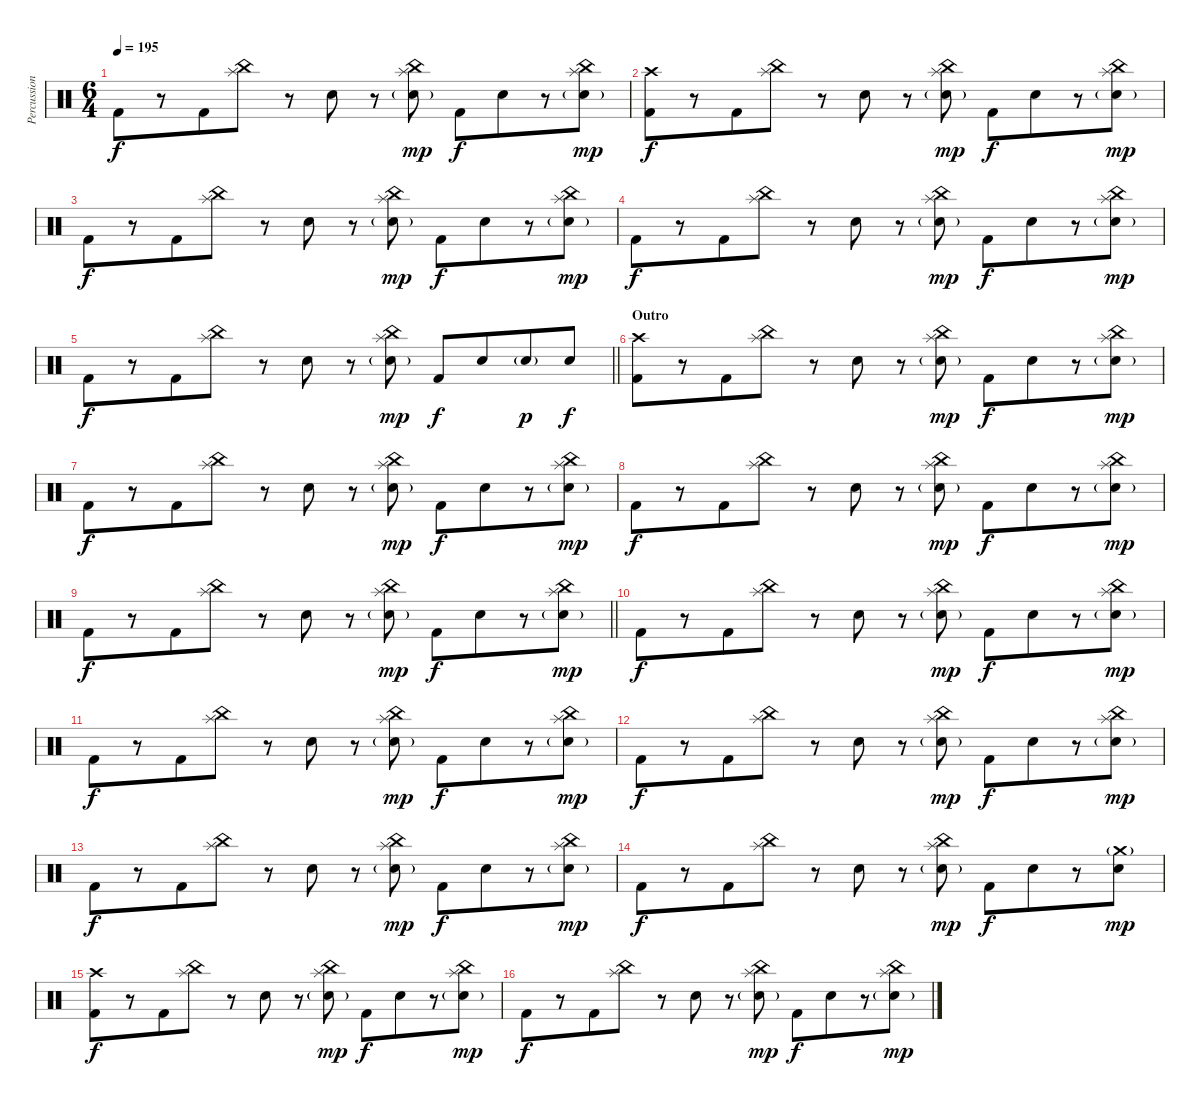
\track ("Percussion" "Percussion") {instrument percussion bank 237}
\staff {score}
\articulation defaults
\ts (6 4)
\tempo 195
\clef neutral
\ks c "Kick (hit) 2".8{dy f beam merge}
r.8{beam merge} "Kick (hit) 2".8 ("Splash (hit)" "China (hit)").8 r.8 "Electric Snare (hit)".8 r.8{beam merge} ("Splash (hit)" "China (hit)" "Electric Snare (hit)"{g}).8{dy mp} "Kick (hit) 2".8{dy f} "Electric Snare (hit)".8{beam merge} r.8{beam merge} ("Splash (hit)" "China (hit)" "Electric Snare (hit)"{g}).8{dy mp} |
("Crash high (hit)" "Kick (hit) 2").8{dy f beam merge} r.8{beam merge} "Kick (hit) 2".8 ("Splash (hit)" "China (hit)").8 r.8 "Electric Snare (hit)".8 r.8 ("Splash (hit)" "China (hit)" "Electric Snare (hit)"{g}).8{dy mp} "Kick (hit) 2".8{dy f} "Electric Snare (hit)".8{beam merge} r.8{beam merge} ("Splash (hit)" "China (hit)" "Electric Snare (hit)"{g}).8{dy mp} |
"Kick (hit) 2".8{dy f beam merge} r.8{beam merge} "Kick (hit) 2".8 ("Splash (hit)" "China (hit)").8 r.8 "Electric Snare (hit)".8 r.8{beam merge} ("Splash (hit)" "China (hit)" "Electric Snare (hit)"{g}).8{dy mp} "Kick (hit) 2".8{dy f} "Electric Snare (hit)".8{beam merge} r.8{beam merge} ("Splash (hit)" "China (hit)" "Electric Snare (hit)"{g}).8{dy mp} |
"Kick (hit) 2".8{dy f beam merge} r.8{beam merge} "Kick (hit) 2".8 ("Splash (hit)" "China (hit)").8 r.8 "Electric Snare (hit)".8 r.8{beam merge} ("Splash (hit)" "China (hit)" "Electric Snare (hit)"{g}).8{dy mp} "Kick (hit) 2".8{dy f} "Electric Snare (hit)".8{beam merge} r.8{beam merge} ("Splash (hit)" "China (hit)" "Electric Snare (hit)"{g}).8{dy mp} |
\barLineRight lightlight "Kick (hit) 2".8{dy f beam merge}
r.8{beam merge} "Kick (hit) 2".8 ("Splash (hit)" "China (hit)").8 r.8 "Electric Snare (hit)".8 r.8 ("Splash (hit)" "China (hit)" "Electric Snare (hit)"{g}).8{dy mp} "Kick (hit) 2".8{dy f} "Electric Snare (hit)".8{beam merge} "Electric Snare (hit)"{g}.8{dy p} "Electric Snare (hit)".8{dy f} |
\section ("" "Outro")
("Crash high (hit)" "Kick (hit) 2").8{beam merge} r.8{beam merge} "Kick (hit) 2".8 ("Splash (hit)" "China (hit)").8 r.8 "Electric Snare (hit)".8 r.8 ("Splash (hit)" "China (hit)" "Electric Snare (hit)"{g}).8{dy mp} "Kick (hit) 2".8{dy f} "Electric Snare (hit)".8{beam merge} r.8{beam merge} ("Splash (hit)" "China (hit)" "Electric Snare (hit)"{g}).8{dy mp} |
"Kick (hit) 2".8{dy f beam merge} r.8{beam merge} "Kick (hit) 2".8 ("Splash (hit)" "China (hit)").8 r.8 "Electric Snare (hit)".8 r.8{beam merge} ("Splash (hit)" "China (hit)" "Electric Snare (hit)"{g}).8{dy mp} "Kick (hit) 2".8{dy f} "Electric Snare (hit)".8{beam merge} r.8{beam merge} ("Splash (hit)" "China (hit)" "Electric Snare (hit)"{g}).8{dy mp} |
"Kick (hit) 2".8{dy f beam merge} r.8{beam merge} "Kick (hit) 2".8 ("Splash (hit)" "China (hit)").8 r.8 "Electric Snare (hit)".8 r.8{beam merge} ("Splash (hit)" "China (hit)" "Electric Snare (hit)"{g}).8{dy mp} "Kick (hit) 2".8{dy f} "Electric Snare (hit)".8{beam merge} r.8{beam merge} ("Splash (hit)" "China (hit)" "Electric Snare (hit)"{g}).8{dy mp} |
\barLineRight lightlight "Kick (hit) 2".8{dy f beam merge}
r.8{beam merge} "Kick (hit) 2".8 ("Splash (hit)" "China (hit)").8 r.8 "Electric Snare (hit)".8 r.8{beam merge} ("Splash (hit)" "China (hit)" "Electric Snare (hit)"{g}).8{dy mp} "Kick (hit) 2".8{dy f} "Electric Snare (hit)".8{beam merge} r.8{beam merge} ("Splash (hit)" "China (hit)" "Electric Snare (hit)"{g}).8{dy mp} |
"Kick (hit) 2".8{dy f beam merge} r.8{beam merge} "Kick (hit) 2".8 ("Splash (hit)" "China (hit)").8 r.8 "Electric Snare (hit)".8 r.8{beam merge} ("Splash (hit)" "China (hit)" "Electric Snare (hit)"{g}).8{dy mp} "Kick (hit) 2".8{dy f} "Electric Snare (hit)".8{beam merge} r.8{beam merge} ("Splash (hit)" "China (hit)" "Electric Snare (hit)"{g}).8{dy mp} |
"Kick (hit) 2".8{dy f beam merge} r.8{beam merge} "Kick (hit) 2".8 ("Splash (hit)" "China (hit)").8 r.8 "Electric Snare (hit)".8 r.8{beam merge} ("Splash (hit)" "China (hit)" "Electric Snare (hit)"{g}).8{dy mp} "Kick (hit) 2".8{dy f} "Electric Snare (hit)".8{beam merge} r.8{beam merge} ("Splash (hit)" "China (hit)" "Electric Snare (hit)"{g}).8{dy mp} |
"Kick (hit) 2".8{dy f beam merge} r.8{beam merge} "Kick (hit) 2".8 ("Splash (hit)" "China (hit)").8 r.8 "Electric Snare (hit)".8 r.8{beam merge} ("Splash (hit)" "China (hit)" "Electric Snare (hit)"{g}).8{dy mp} "Kick (hit) 2".8{dy f} "Electric Snare (hit)".8{beam merge} r.8{beam merge} ("Splash (hit)" "China (hit)" "Electric Snare (hit)"{g}).8{dy mp} |
"Kick (hit) 2".8{dy f beam merge} r.8{beam merge} "Kick (hit) 2".8 ("Splash (hit)" "China (hit)").8 r.8 "Electric Snare (hit)".8 r.8{beam merge} ("Splash (hit)" "China (hit)" "Electric Snare (hit)"{g}).8{dy mp} "Kick (hit) 2".8{dy f} "Electric Snare (hit)".8{beam merge} r.8{beam merge} ("Splash (hit)" "China (hit)" "Electric Snare (hit)"{g}).8{dy mp} |
"Kick (hit) 2".8{dy f beam merge} r.8{beam merge} "Kick (hit) 2".8 ("Splash (hit)" "China (hit)").8 r.8 "Electric Snare (hit)".8 r.8{beam merge} ("Splash (hit)" "China (hit)" "Electric Snare (hit)"{g}).8{dy mp} "Kick (hit) 2".8{dy f} "Electric Snare (hit)".8{beam merge} r.8{beam merge} ("Crash medium (hit)"{g} "Electric Snare (hit)").8{dy mp} |
("Crash high (hit)" "Kick (hit) 2").8{dy f volume 13 beam merge} r.8{beam merge} "Kick (hit) 2".8 ("Splash (hit)" "China (hit)").8 r.8 "Electric Snare (hit)".8 r.8 ("Splash (hit)" "China (hit)" "Electric Snare (hit)"{g}).8{dy mp} "Kick (hit) 2".8{dy f} "Electric Snare (hit)".8{beam merge} r.8{beam merge} ("Splash (hit)" "China (hit)" "Electric Snare (hit)"{g}).8{dy mp} |
"Kick (hit) 2".8{dy f beam merge} r.8{beam merge} "Kick (hit) 2".8 ("Splash (hit)" "China (hit)").8 r.8 "Electric Snare (hit)".8 r.8{beam merge} ("Splash (hit)" "China (hit)" "Electric Snare (hit)"{g}).8{dy mp} "Kick (hit) 2".8{dy f} "Electric Snare (hit)".8{beam merge} r.8{beam merge} ("Splash (hit)" "China (hit)" "Electric Snare (hit)"{g}).8{dy mp}
